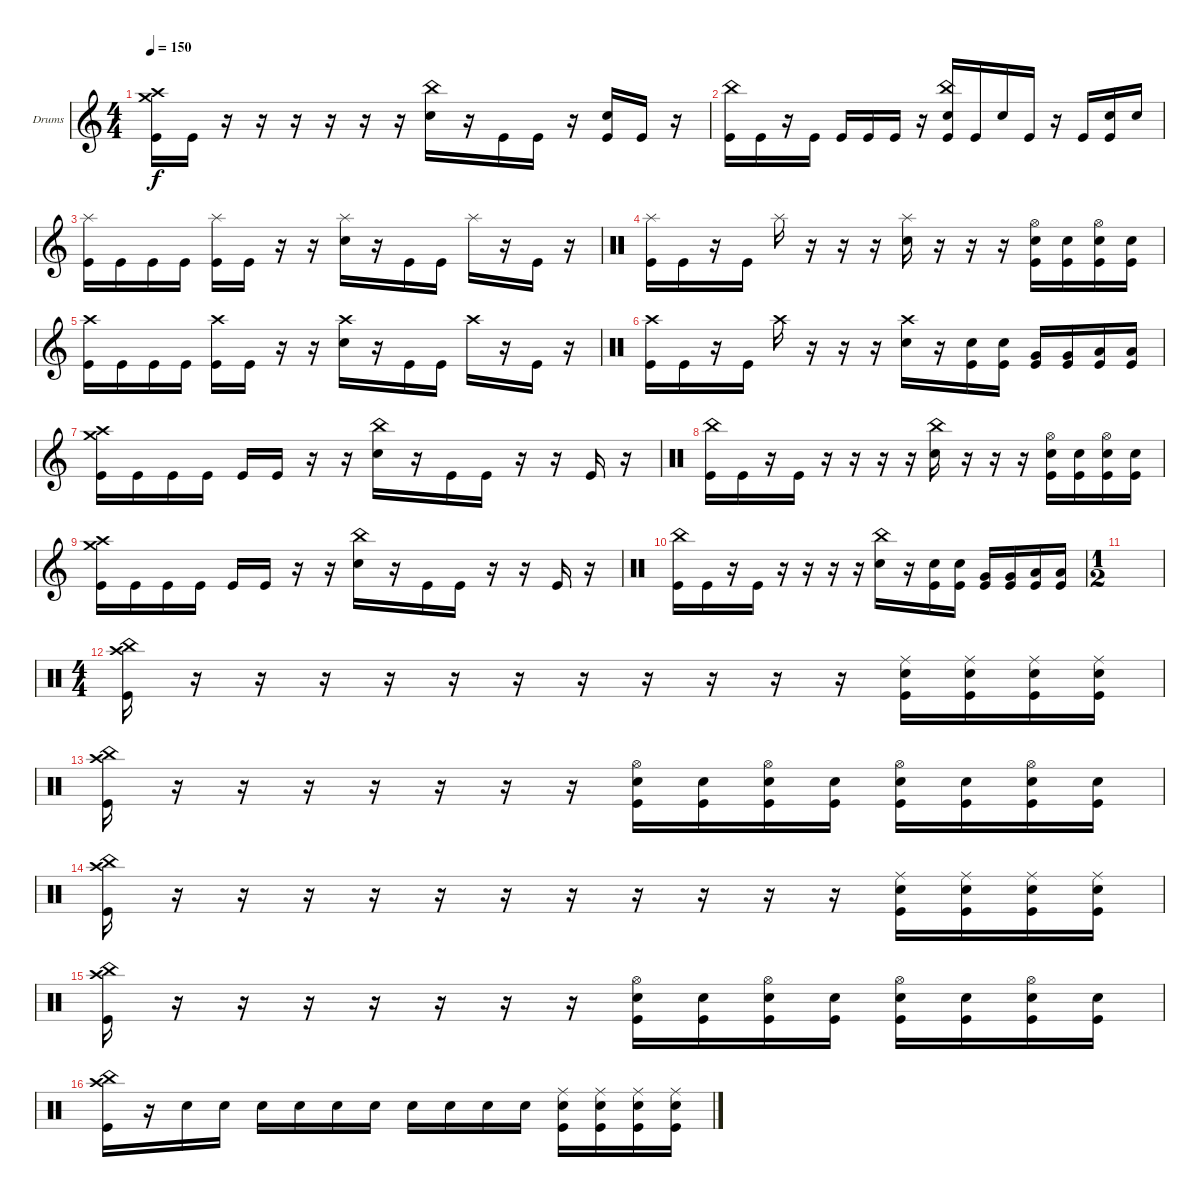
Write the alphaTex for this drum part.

\defaultSystemsLayout 4
\bracketExtendMode groupsimilarinstruments
\firstSystemTrackNameOrientation horizontal
\otherSystemsTrackNameOrientation horizontal
\track ("Drumkit" "Drums") {instrument percussion}
\staff {score}
\articulation defaults
\ts (4 4)
\tempo 150
\clef g2
\ks c
("Kick (hit)" "Crash high (hit)" "Crash medium (hit)").16{dy f} "Kick (hit)".16 r.16 r.16 r.16 r.16 r.16 r.16 ("China (hit)" "Snare (hit) 2").16 r.16 "Kick (hit)".16 "Kick (hit)".16 r.16 ("Kick (hit)" "Snare (hit) 2").16 "Kick (hit)".16 r.16 |
("Kick (hit)" "China (hit)").16 "Kick (hit)".16 r.16 "Kick (hit)".16 "Kick (hit)".16 "Kick (hit)".16 "Kick (hit)".16 r.16 ("Kick (hit)" "China (hit)" "Snare (hit) 2").16 "Kick (hit)".16 "Snare (hit) 2".16 "Kick (hit)".16 r.16 "Kick (hit)".16 ("Kick (hit)" "Snare (hit) 2").16 "Snare (hit) 2".16 |
("Kick (hit)" "Splash (hit)").16 "Kick (hit)".16 "Kick (hit)".16 "Kick (hit)".16 ("Kick (hit)" "Splash (hit)").16 "Kick (hit)".16 r.16 r.16 ("Snare (hit) 2" "Splash (hit)").16 r.16 "Kick (hit)".16 "Kick (hit)".16 "Splash (hit)".16 r.16 "Kick (hit)".16 r.16 |
\clef neutral
("Kick (hit)" "Splash (hit)").16 "Kick (hit)".16 r.16 "Kick (hit)".16 "Splash (hit)".16 r.16 r.16 r.16 ("Snare (hit) 2" "Splash (hit)").16 r.16 r.16 r.16 ("Snare (hit) 2" "Kick (hit)" "Hi-Hat (open)").16 ("Snare (hit) 2" "Kick (hit)").16 ("Snare (hit) 2" "Kick (hit)" "Hi-Hat (open)").16 ("Snare (hit) 2" "Kick (hit)").16 |
\clef g2
("Kick (hit)" "Crash high (hit)").16 "Kick (hit)".16 "Kick (hit)".16 "Kick (hit)".16 ("Kick (hit)" "Crash high (hit)").16 "Kick (hit)".16 r.16 r.16 ("Snare (hit) 2" "Crash high (hit)").16 r.16 "Kick (hit)".16 "Kick (hit)".16 "Crash high (hit)".16 r.16 "Kick (hit)".16 r.16 |
\clef neutral
("Kick (hit)" "Crash high (hit)").16 "Kick (hit)".16 r.16 "Kick (hit)".16 "Crash high (hit)".16 r.16 r.16 r.16 ("Snare (hit) 2" "Crash high (hit)").16 r.16 ("Kick (hit)" "Snare (hit) 2").16 ("Kick (hit)" "Snare (hit) 2").16 ("Very Low Tom (hit)" "Kick (hit)").16 ("Very Low Tom (hit)" "Kick (hit)").16 ("Low Tom (hit)" "Kick (hit)").16 ("Low Tom (hit)" "Kick (hit)").16 |
\clef g2
("Kick (hit)" "Crash high (hit)" "Crash medium (hit)").16 "Kick (hit)".16 "Kick (hit)".16 "Kick (hit)".16 "Kick (hit)".16 "Kick (hit)".16 r.16 r.16 ("China (hit)" "Snare (hit) 2").16 r.16 "Kick (hit)".16 "Kick (hit)".16 r.16 r.16 "Kick (hit)".16 r.16 |
\clef neutral
("China (hit)" "Kick (hit)").16 "Kick (hit)".16 r.16 "Kick (hit)".16 r.16 r.16 r.16 r.16 ("China (hit)" "Snare (hit) 2").16 r.16 r.16 r.16 ("Snare (hit) 2" "Kick (hit)" "Hi-Hat (open)").16 ("Snare (hit) 2" "Kick (hit)").16 ("Snare (hit) 2" "Kick (hit)" "Hi-Hat (open)").16 ("Snare (hit) 2" "Kick (hit)").16 |
\clef g2
("Kick (hit)" "Crash high (hit)" "Crash medium (hit)").16 "Kick (hit)".16 "Kick (hit)".16 "Kick (hit)".16 "Kick (hit)".16 "Kick (hit)".16 r.16 r.16 ("China (hit)" "Snare (hit) 2").16 r.16 "Kick (hit)".16 "Kick (hit)".16 r.16 r.16 "Kick (hit)".16 r.16 |
\clef neutral
("Kick (hit)" "China (hit)").16 "Kick (hit)".16 r.16 "Kick (hit)".16 r.16 r.16 r.16 r.16 ("China (hit)" "Snare (hit) 2").16 r.16 ("Kick (hit)" "Snare (hit) 2").16 ("Kick (hit)" "Snare (hit) 2").16 ("Very Low Tom (hit)" "Kick (hit)").16 ("Very Low Tom (hit)" "Kick (hit)").16 ("Low Tom (hit)" "Kick (hit)").16 ("Low Tom (hit)" "Kick (hit)").16 |
\ts (1 2)
|
\ts (4 4)
("Kick (hit)" "Crash high (hit)" "China (hit)").16 r.16 r.16 r.16 r.16 r.16 r.16 r.16 r.16 r.16 r.16 r.16 ("Kick (hit)" "Snare (hit) 2" "Ride (middle)").16 ("Kick (hit)" "Snare (hit) 2" "Ride (middle)").16 ("Kick (hit)" "Snare (hit) 2" "Ride (middle)").16 ("Kick (hit)" "Snare (hit) 2" "Ride (middle)").16 |
("Kick (hit)" "Crash high (hit)" "China (hit)").16 r.16 r.16 r.16 r.16 r.16 r.16 r.16 ("Kick (hit)" "Snare (hit) 2" "Hi-Hat (open)").16 ("Kick (hit)" "Snare (hit) 2").16 ("Kick (hit)" "Snare (hit) 2" "Hi-Hat (open)").16 ("Kick (hit)" "Snare (hit) 2").16 ("Kick (hit)" "Snare (hit) 2" "Hi-Hat (open)").16 ("Kick (hit)" "Snare (hit) 2").16 ("Kick (hit)" "Snare (hit) 2" "Hi-Hat (open)").16 ("Kick (hit)" "Snare (hit) 2").16 |
("Kick (hit)" "Crash high (hit)" "China (hit)").16 r.16 r.16 r.16 r.16 r.16 r.16 r.16 r.16 r.16 r.16 r.16 ("Kick (hit)" "Snare (hit) 2" "Ride (middle)").16 ("Kick (hit)" "Snare (hit) 2" "Ride (middle)").16 ("Kick (hit)" "Snare (hit) 2" "Ride (middle)").16 ("Kick (hit)" "Snare (hit) 2" "Ride (middle)").16 |
("Kick (hit)" "Crash high (hit)" "China (hit)").16 r.16 r.16 r.16 r.16 r.16 r.16 r.16 ("Kick (hit)" "Snare (hit) 2" "Hi-Hat (open)").16 ("Kick (hit)" "Snare (hit) 2").16 ("Kick (hit)" "Snare (hit) 2" "Hi-Hat (open)").16 ("Kick (hit)" "Snare (hit) 2").16 ("Kick (hit)" "Snare (hit) 2" "Hi-Hat (open)").16 ("Kick (hit)" "Snare (hit) 2").16 ("Kick (hit)" "Snare (hit) 2" "Hi-Hat (open)").16 ("Kick (hit)" "Snare (hit) 2").16 |
("Kick (hit)" "Crash high (hit)" "China (hit)").16 r.16 "Snare (hit) 2".16 "Snare (hit) 2".16 "Snare (hit) 2".16 "Snare (hit) 2".16 "Snare (hit) 2".16 "Snare (hit) 2".16 "Snare (hit) 2".16 "Snare (hit) 2".16 "Snare (hit) 2".16 "Snare (hit) 2".16 ("Kick (hit)" "Snare (hit) 2" "Ride (middle)").16 ("Kick (hit)" "Snare (hit) 2" "Ride (middle)").16 ("Kick (hit)" "Snare (hit) 2" "Ride (middle)").16 ("Kick (hit)" "Snare (hit) 2" "Ride (middle)").16
